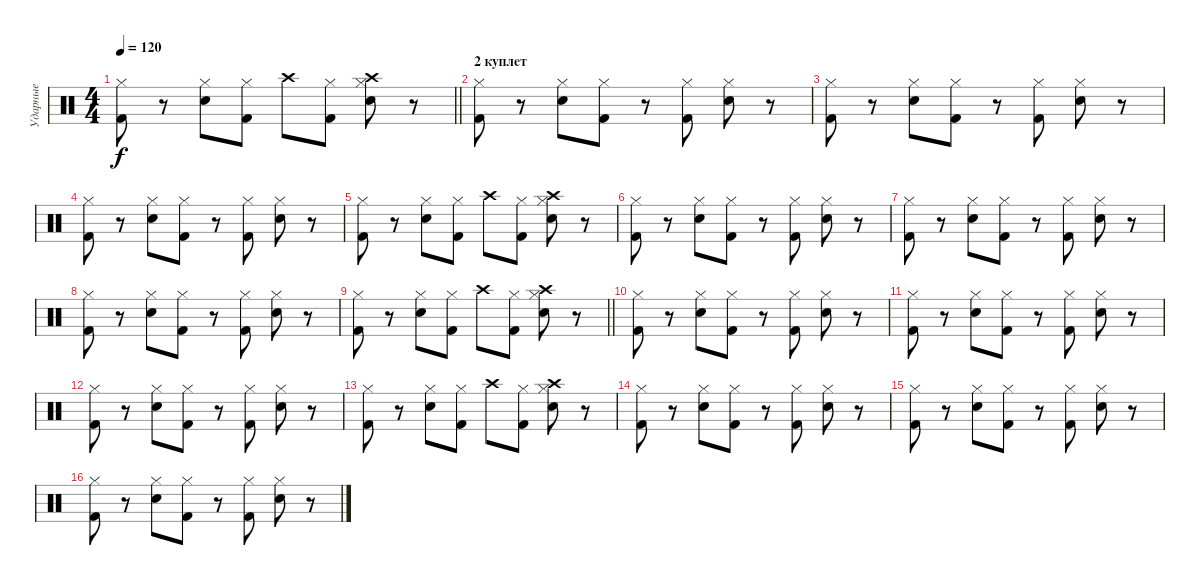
\track ("Ударные" "Ударные") {instrument percussion}
\staff {score}
\articulation defaults
\ts (4 4)
\tempo 120
\clef neutral
\barLineRight lightlight
\ks c
("Kick (hit) 2" "Hi-Hat (closed)").8{dy f} r.8 ("Snare (hit) 2" "Hi-Hat (closed)").8 ("Kick (hit) 2" "Hi-Hat (closed)").8 "Crash high (hit)".8 ("Kick (hit) 2" "Hi-Hat (closed)").8 ("Snare (hit) 2" "Hi-Hat (closed)" "Crash high (hit)").8 r.8 |
\section ("" "2 куплет")
("Kick (hit) 2" "Hi-Hat (closed)").8 r.8 ("Snare (hit) 2" "Hi-Hat (closed)").8 ("Kick (hit) 2" "Hi-Hat (closed)").8 r.8 ("Kick (hit) 2" "Hi-Hat (closed)").8 ("Snare (hit) 2" "Hi-Hat (closed)").8 r.8 |
("Kick (hit) 2" "Hi-Hat (closed)").8 r.8 ("Snare (hit) 2" "Hi-Hat (closed)").8 ("Kick (hit) 2" "Hi-Hat (closed)").8 r.8 ("Kick (hit) 2" "Hi-Hat (closed)").8 ("Snare (hit) 2" "Hi-Hat (closed)").8 r.8 |
("Kick (hit) 2" "Hi-Hat (closed)").8 r.8 ("Snare (hit) 2" "Hi-Hat (closed)").8 ("Kick (hit) 2" "Hi-Hat (closed)").8 r.8 ("Kick (hit) 2" "Hi-Hat (closed)").8 ("Snare (hit) 2" "Hi-Hat (closed)").8 r.8 |
("Kick (hit) 2" "Hi-Hat (closed)").8 r.8 ("Snare (hit) 2" "Hi-Hat (closed)").8 ("Kick (hit) 2" "Hi-Hat (closed)").8 "Crash high (hit)".8 ("Kick (hit) 2" "Hi-Hat (closed)").8 ("Snare (hit) 2" "Hi-Hat (closed)" "Crash high (hit)").8 r.8 |
("Kick (hit) 2" "Hi-Hat (closed)").8 r.8 ("Snare (hit) 2" "Hi-Hat (closed)").8 ("Kick (hit) 2" "Hi-Hat (closed)").8 r.8 ("Kick (hit) 2" "Hi-Hat (closed)").8 ("Snare (hit) 2" "Hi-Hat (closed)").8 r.8 |
("Kick (hit) 2" "Hi-Hat (closed)").8 r.8 ("Snare (hit) 2" "Hi-Hat (closed)").8 ("Kick (hit) 2" "Hi-Hat (closed)").8 r.8 ("Kick (hit) 2" "Hi-Hat (closed)").8 ("Snare (hit) 2" "Hi-Hat (closed)").8 r.8 |
("Kick (hit) 2" "Hi-Hat (closed)").8 r.8 ("Snare (hit) 2" "Hi-Hat (closed)").8 ("Kick (hit) 2" "Hi-Hat (closed)").8 r.8 ("Kick (hit) 2" "Hi-Hat (closed)").8 ("Snare (hit) 2" "Hi-Hat (closed)").8 r.8 |
\barLineRight lightlight
("Kick (hit) 2" "Hi-Hat (closed)").8 r.8 ("Snare (hit) 2" "Hi-Hat (closed)").8 ("Kick (hit) 2" "Hi-Hat (closed)").8 "Crash high (hit)".8 ("Kick (hit) 2" "Hi-Hat (closed)").8 ("Snare (hit) 2" "Hi-Hat (closed)" "Crash high (hit)").8 r.8 |
("Kick (hit) 2" "Hi-Hat (closed)").8 r.8 ("Snare (hit) 2" "Hi-Hat (closed)").8 ("Kick (hit) 2" "Hi-Hat (closed)").8 r.8 ("Kick (hit) 2" "Hi-Hat (closed)").8 ("Snare (hit) 2" "Hi-Hat (closed)").8 r.8 |
("Kick (hit) 2" "Hi-Hat (closed)").8 r.8 ("Snare (hit) 2" "Hi-Hat (closed)").8 ("Kick (hit) 2" "Hi-Hat (closed)").8 r.8 ("Kick (hit) 2" "Hi-Hat (closed)").8 ("Snare (hit) 2" "Hi-Hat (closed)").8 r.8 |
("Kick (hit) 2" "Hi-Hat (closed)").8 r.8 ("Snare (hit) 2" "Hi-Hat (closed)").8 ("Kick (hit) 2" "Hi-Hat (closed)").8 r.8 ("Kick (hit) 2" "Hi-Hat (closed)").8 ("Snare (hit) 2" "Hi-Hat (closed)").8 r.8 |
("Kick (hit) 2" "Hi-Hat (closed)").8 r.8 ("Snare (hit) 2" "Hi-Hat (closed)").8 ("Kick (hit) 2" "Hi-Hat (closed)").8 "Crash high (hit)".8 ("Kick (hit) 2" "Hi-Hat (closed)").8 ("Snare (hit) 2" "Hi-Hat (closed)" "Crash high (hit)").8 r.8 |
("Kick (hit) 2" "Hi-Hat (closed)").8 r.8 ("Snare (hit) 2" "Hi-Hat (closed)").8 ("Kick (hit) 2" "Hi-Hat (closed)").8 r.8 ("Kick (hit) 2" "Hi-Hat (closed)").8 ("Snare (hit) 2" "Hi-Hat (closed)").8 r.8 |
("Kick (hit) 2" "Hi-Hat (closed)").8 r.8 ("Snare (hit) 2" "Hi-Hat (closed)").8 ("Kick (hit) 2" "Hi-Hat (closed)").8 r.8 ("Kick (hit) 2" "Hi-Hat (closed)").8 ("Snare (hit) 2" "Hi-Hat (closed)").8 r.8 |
("Kick (hit) 2" "Hi-Hat (closed)").8 r.8 ("Snare (hit) 2" "Hi-Hat (closed)").8 ("Kick (hit) 2" "Hi-Hat (closed)").8 r.8 ("Kick (hit) 2" "Hi-Hat (closed)").8 ("Snare (hit) 2" "Hi-Hat (closed)").8 r.8
